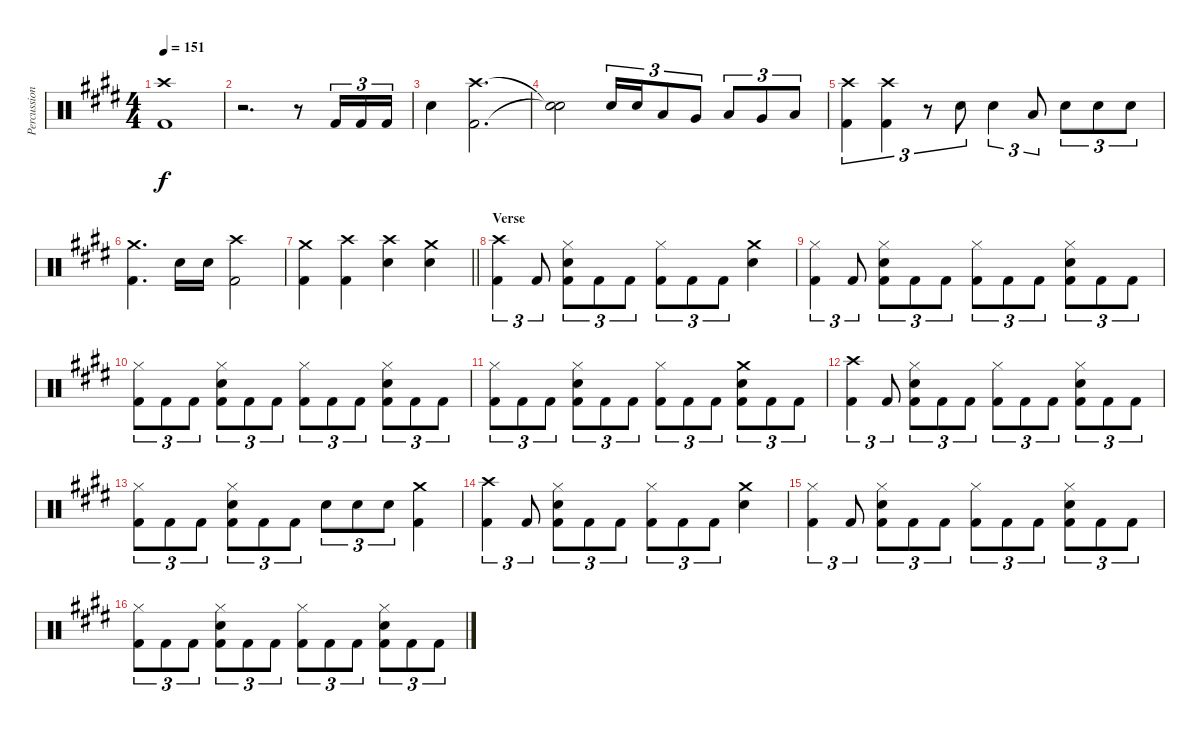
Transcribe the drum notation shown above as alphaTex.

\track ("Percussion" "Percussion") {instrument percussion}
\staff {score}
\articulation defaults
\ts (4 4)
\tempo 151
\clef neutral
\ks e
("Crash high (hit)" "Kick (hit) 2").1{dy f} |
r.2{d} r.8 "Kick (hit) 2".16{tu (3 2)} "Kick (hit) 2".16{tu (3 2)} "Kick (hit) 2".16{tu (3 2)} |
"Snare (hit) 2".4 ("Crash high (hit)" "Kick (hit) 2").2{d} |
("Snare (hit)"{t} "Snare (hit)"{t}).2 "Snare (hit) 2".16{tu (3 2)} "Snare (hit) 2".16{tu (3 2)} "Low Tom (hit)".8{tu (3 2)} "Very Low Tom (hit)".8{tu (3 2)} "Low Tom (hit)".8{tu (3 2)} "Very Low Tom (hit)".8{tu (3 2)} "Low Floor Tom (hit)".8{tu (3 2)} |
("Crash high (hit)" "Kick (hit) 2").4{tu (3 2)} ("Crash high (hit)" "Kick (hit) 2").4{tu (3 2)} r.8{tu (3 2)} "Snare (hit) 2".8{tu (3 2)} "Snare (hit) 2".4{tu (3 2)} "Low Tom (hit)".8{tu (3 2)} "Snare (hit) 2".8{tu (3 2)} "Snare (hit) 2".8{tu (3 2)} "Snare (hit) 2".8{tu (3 2)} |
("Crash medium (hit)" "Kick (hit) 2").4{d} "Snare (hit) 2".16 "Snare (hit) 2".16 ("Crash high (hit)" "Kick (hit) 2").2 |
\barLineRight lightlight
("Crash medium (hit)" "Kick (hit) 2").4 ("Crash high (hit)" "Kick (hit) 2").4 ("Crash high (hit)" "Snare (hit) 2").4 ("Crash medium (hit)" "Snare (hit) 2").4 |
\section ("" "Verse")
("Crash high (hit)" "Kick (hit) 2").4{tu (3 2)} "Kick (hit) 2".8{tu (3 2)} ("Hi-Hat (closed)" "Snare (hit) 2" "Kick (hit) 2").8{tu (3 2)} "Kick (hit) 2".8{tu (3 2)} "Kick (hit) 2".8{tu (3 2)} ("Hi-Hat (closed)" "Kick (hit) 2").8{tu (3 2)} "Kick (hit) 2".8{tu (3 2)} "Kick (hit) 2".8{tu (3 2)} ("Crash medium (hit)" "Snare (hit) 2").4 |
("Hi-Hat (closed)" "Kick (hit) 2").4{tu (3 2)} "Kick (hit) 2".8{tu (3 2)} ("Hi-Hat (closed)" "Snare (hit) 2" "Kick (hit) 2").8{tu (3 2)} "Kick (hit) 2".8{tu (3 2)} "Kick (hit) 2".8{tu (3 2)} ("Hi-Hat (closed)" "Kick (hit) 2").8{tu (3 2)} "Kick (hit) 2".8{tu (3 2)} "Kick (hit) 2".8{tu (3 2)} ("Hi-Hat (closed)" "Snare (hit) 2" "Kick (hit) 2").8{tu (3 2)} "Kick (hit) 2".8{tu (3 2)} "Kick (hit) 2".8{tu (3 2)} |
("Hi-Hat (closed)" "Kick (hit) 2").8{tu (3 2)} "Kick (hit) 2".8{tu (3 2)} "Kick (hit) 2".8{tu (3 2)} ("Hi-Hat (closed)" "Snare (hit) 2" "Kick (hit) 2").8{tu (3 2)} "Kick (hit) 2".8{tu (3 2)} "Kick (hit) 2".8{tu (3 2)} ("Hi-Hat (closed)" "Kick (hit) 2").8{tu (3 2)} "Kick (hit) 2".8{tu (3 2)} "Kick (hit) 2".8{tu (3 2)} ("Hi-Hat (closed)" "Snare (hit) 2" "Kick (hit) 2").8{tu (3 2)} "Kick (hit) 2".8{tu (3 2)} "Kick (hit) 2".8{tu (3 2)} |
("Hi-Hat (closed)" "Kick (hit) 2").8{tu (3 2)} "Kick (hit) 2".8{tu (3 2)} "Kick (hit) 2".8{tu (3 2)} ("Hi-Hat (closed)" "Snare (hit) 2" "Kick (hit) 2").8{tu (3 2)} "Kick (hit) 2".8{tu (3 2)} "Kick (hit) 2".8{tu (3 2)} ("Hi-Hat (closed)" "Kick (hit) 2").8{tu (3 2)} "Kick (hit) 2".8{tu (3 2)} "Kick (hit) 2".8{tu (3 2)} ("Crash medium (hit)" "Snare (hit) 2" "Kick (hit) 2").8{tu (3 2)} "Kick (hit) 2".8{tu (3 2)} "Kick (hit) 2".8{tu (3 2)} |
("Crash high (hit)" "Kick (hit) 2").4{tu (3 2)} "Kick (hit) 2".8{tu (3 2)} ("Hi-Hat (closed)" "Snare (hit) 2" "Kick (hit) 2").8{tu (3 2)} "Kick (hit) 2".8{tu (3 2)} "Kick (hit) 2".8{tu (3 2)} ("Hi-Hat (closed)" "Kick (hit) 2").8{tu (3 2)} "Kick (hit) 2".8{tu (3 2)} "Kick (hit) 2".8{tu (3 2)} ("Hi-Hat (closed)" "Snare (hit) 2" "Kick (hit) 2").8{tu (3 2)} "Kick (hit) 2".8{tu (3 2)} "Kick (hit) 2".8{tu (3 2)} |
("Hi-Hat (closed)" "Kick (hit) 2").8{tu (3 2)} "Kick (hit) 2".8{tu (3 2)} "Kick (hit) 2".8{tu (3 2)} ("Hi-Hat (closed)" "Snare (hit) 2" "Kick (hit) 2").8{tu (3 2)} "Kick (hit) 2".8{tu (3 2)} "Kick (hit) 2".8{tu (3 2)} "Snare (hit) 2".8{tu (3 2)} "Snare (hit) 2".8{tu (3 2)} "Snare (hit) 2".8{tu (3 2)} ("Crash medium (hit)" "Kick (hit) 2").4 |
("Crash high (hit)" "Kick (hit) 2").4{tu (3 2)} "Kick (hit) 2".8{tu (3 2)} ("Hi-Hat (closed)" "Snare (hit) 2" "Kick (hit) 2").8{tu (3 2)} "Kick (hit) 2".8{tu (3 2)} "Kick (hit) 2".8{tu (3 2)} ("Hi-Hat (closed)" "Kick (hit) 2").8{tu (3 2)} "Kick (hit) 2".8{tu (3 2)} "Kick (hit) 2".8{tu (3 2)} ("Crash medium (hit)" "Snare (hit) 2").4 |
("Hi-Hat (closed)" "Kick (hit) 2").4{tu (3 2)} "Kick (hit) 2".8{tu (3 2)} ("Hi-Hat (closed)" "Snare (hit) 2" "Kick (hit) 2").8{tu (3 2)} "Kick (hit) 2".8{tu (3 2)} "Kick (hit) 2".8{tu (3 2)} ("Hi-Hat (closed)" "Kick (hit) 2").8{tu (3 2)} "Kick (hit) 2".8{tu (3 2)} "Kick (hit) 2".8{tu (3 2)} ("Hi-Hat (closed)" "Snare (hit) 2" "Kick (hit) 2").8{tu (3 2)} "Kick (hit) 2".8{tu (3 2)} "Kick (hit) 2".8{tu (3 2)} |
("Hi-Hat (closed)" "Kick (hit) 2").8{tu (3 2)} "Kick (hit) 2".8{tu (3 2)} "Kick (hit) 2".8{tu (3 2)} ("Hi-Hat (closed)" "Snare (hit) 2" "Kick (hit) 2").8{tu (3 2)} "Kick (hit) 2".8{tu (3 2)} "Kick (hit) 2".8{tu (3 2)} ("Hi-Hat (closed)" "Kick (hit) 2").8{tu (3 2)} "Kick (hit) 2".8{tu (3 2)} "Kick (hit) 2".8{tu (3 2)} ("Hi-Hat (closed)" "Snare (hit) 2" "Kick (hit) 2").8{tu (3 2)} "Kick (hit) 2".8{tu (3 2)} "Kick (hit) 2".8{tu (3 2)}
